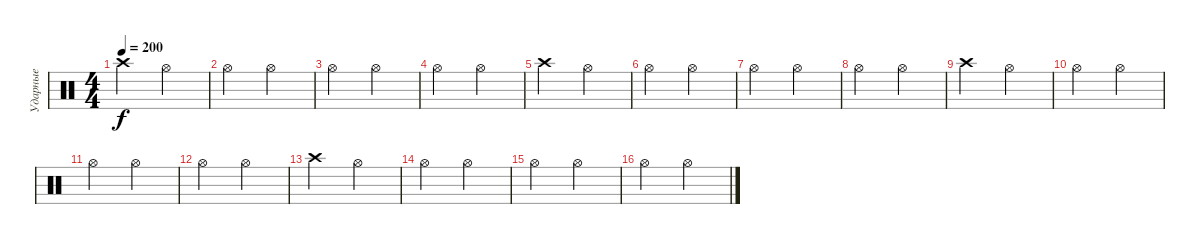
\track ("Ударные" "Ударные") {instrument percussion}
\staff {score}
\articulation defaults
\ts (4 4)
\tempo 200
\clef neutral
\ks c "Crash high (hit)".2{dy f} "Hi-Hat (open)".2
|
"Hi-Hat (open)".2 "Hi-Hat (open)".2 |
"Hi-Hat (open)".2 "Hi-Hat (open)".2 |
"Hi-Hat (open)".2 "Hi-Hat (open)".2 |
"Crash high (hit)".2 "Hi-Hat (open)".2 |
"Hi-Hat (open)".2 "Hi-Hat (open)".2 |
"Hi-Hat (open)".2 "Hi-Hat (open)".2 |
"Hi-Hat (open)".2 "Hi-Hat (open)".2 |
"Crash high (hit)".2 "Hi-Hat (open)".2 |
"Hi-Hat (open)".2 "Hi-Hat (open)".2 |
"Hi-Hat (open)".2 "Hi-Hat (open)".2 |
"Hi-Hat (open)".2 "Hi-Hat (open)".2 |
"Crash high (hit)".2 "Hi-Hat (open)".2 |
"Hi-Hat (open)".2 "Hi-Hat (open)".2 |
"Hi-Hat (open)".2 "Hi-Hat (open)".2 |
"Hi-Hat (open)".2 "Hi-Hat (open)".2
